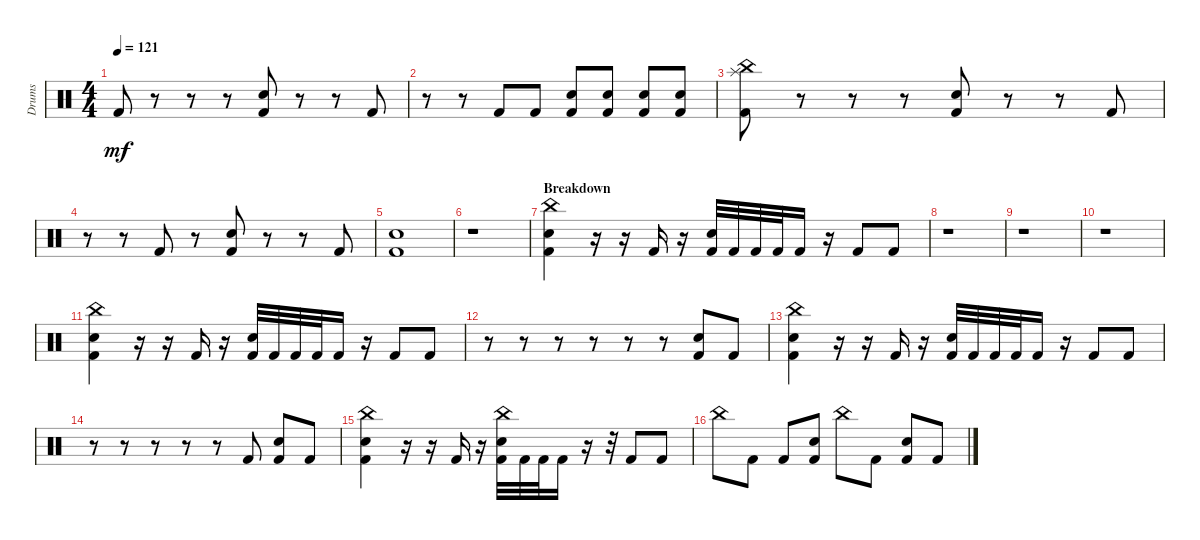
\track ("Drums" "Drums") {instrument percussion}
\staff {score}
\articulation defaults
\ts (4 4)
\tempo 121
\clef neutral
\ks c "Kick (hit) 2".8{dy mf}
r.8 r.8 r.8 ("Kick (hit) 2" "Snare (hit) 2").8 r.8 r.8 "Kick (hit) 2".8 |
r.8 r.8 "Kick (hit) 2".8 "Kick (hit) 2".8 ("Kick (hit) 2" "Snare (hit) 2").8 ("Kick (hit) 2" "Snare (hit) 2").8 ("Kick (hit) 2" "Snare (hit) 2").8 ("Kick (hit) 2" "Snare (hit) 2").8 |
("Kick (hit) 2" "Splash (hit)" "China (hit)").8 r.8 r.8 r.8 ("Kick (hit) 2" "Snare (hit) 2").8 r.8 r.8 "Kick (hit) 2".8 |
r.8 r.8 "Kick (hit) 2".8 r.8 ("Kick (hit) 2" "Snare (hit) 2").8 r.8 r.8 "Kick (hit) 2".8 |
("Kick (hit) 2" "Snare (hit) 2").1 |
r.1 |
\section ("" "Breakdown")
("Kick (hit) 2" "Snare (hit) 2" "China (hit)").4 r.16 r.16 "Kick (hit) 2".16 r.16 ("Kick (hit) 2" "Snare (hit) 2").32 "Kick (hit) 2".32 "Kick (hit) 2".32 "Kick (hit) 2".32 "Kick (hit) 2".16 r.16 "Kick (hit) 2".8 "Kick (hit) 2".8 |
r.1 |
r.1 |
r.1 |
("Kick (hit) 2" "Snare (hit) 2" "China (hit)").4 r.16 r.16 "Kick (hit) 2".16 r.16 ("Kick (hit) 2" "Snare (hit) 2").32 "Kick (hit) 2".32 "Kick (hit) 2".32 "Kick (hit) 2".32 "Kick (hit) 2".16 r.16 "Kick (hit) 2".8 "Kick (hit) 2".8 |
r.8 r.8 r.8 r.8 r.8 r.8 ("Kick (hit) 2" "Snare (hit) 2").8 "Kick (hit) 2".8 |
("Kick (hit) 2" "Snare (hit) 2" "China (hit)").4 r.16 r.16 "Kick (hit) 2".16 r.16 ("Kick (hit) 2" "Snare (hit) 2").32 "Kick (hit) 2".32 "Kick (hit) 2".32 "Kick (hit) 2".32 "Kick (hit) 2".16 r.16 "Kick (hit) 2".8 "Kick (hit) 2".8 |
r.8 r.8 r.8 r.8 r.8 "Kick (hit) 2".8 ("Kick (hit) 2" "Snare (hit) 2").8 "Kick (hit) 2".8 |
("Kick (hit) 2" "Snare (hit) 2" "China (hit)").4 r.16 r.16 "Kick (hit) 2".16 r.16 ("Kick (hit) 2" "Snare (hit) 2" "China (hit)").32 "Kick (hit) 2".32 "Kick (hit) 2".32 "Kick (hit) 2".16 r.16 r.32 "Kick (hit) 2".8 "Kick (hit) 2".8 |
"China (hit)".8 "Kick (hit) 2".8 "Kick (hit) 2".8 ("Kick (hit) 2" "Snare (hit) 2").8 "China (hit)".8 "Kick (hit) 2".8 ("Kick (hit) 2" "Snare (hit) 2").8 "Kick (hit) 2".8
